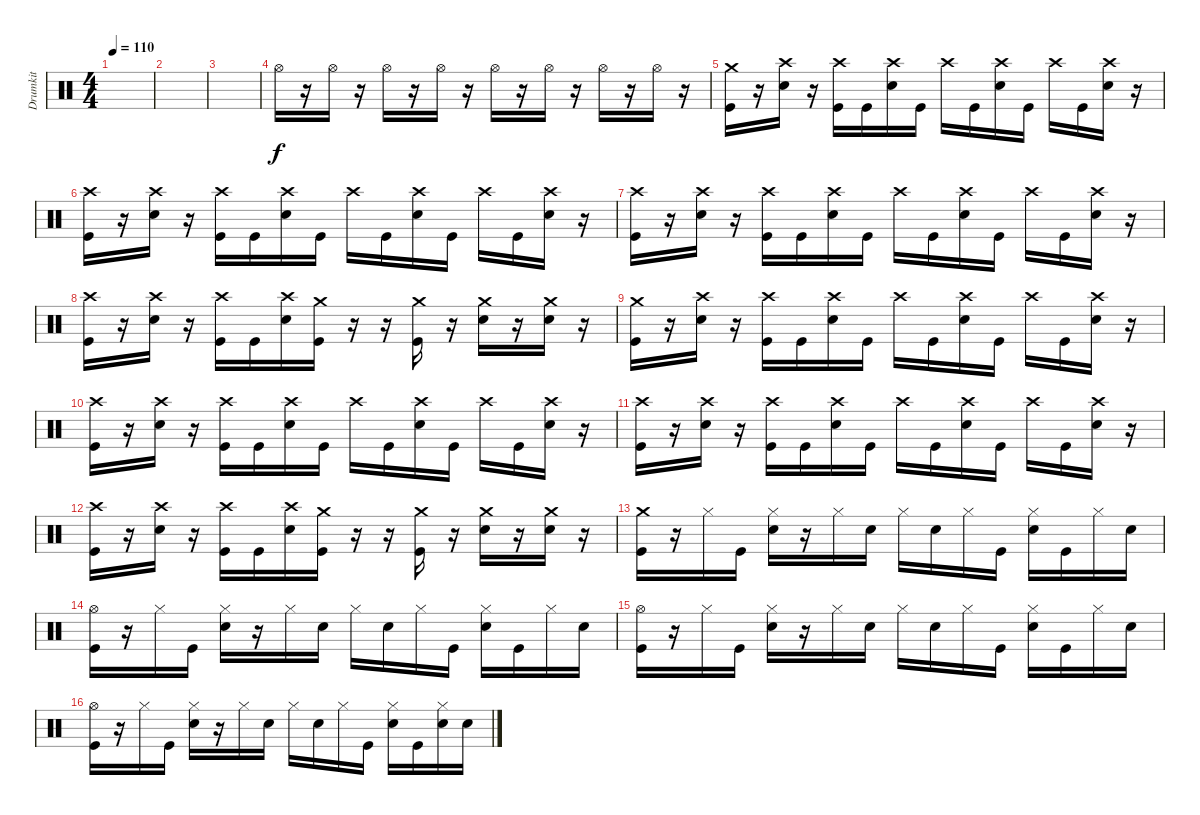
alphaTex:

\track ("Drumkit" "Drumkit") {instrument percussion}
\staff {score}
\articulation defaults
\ts (4 4)
\tempo 110
\clef neutral
\ks c
|
|
|
"Hi-Hat (open)".16 r.16 "Hi-Hat (open)".16 r.16 "Hi-Hat (open)".16 r.16 "Hi-Hat (open)".16 r.16 "Hi-Hat (open)".16 r.16 "Hi-Hat (open)".16 r.16 "Hi-Hat (open)".16 r.16 "Hi-Hat (open)".16 r.16 |
("Crash medium (hit)" "Kick (hit)").16 r.16 ("Crash high (hit)" "Snare (hit) 2").16 r.16 ("Crash high (hit)" "Kick (hit)").16 "Kick (hit)".16 ("Crash high (hit)" "Snare (hit) 2").16 "Kick (hit)".16 "Crash high (hit)".16 "Kick (hit)".16 ("Crash high (hit)" "Snare (hit) 2").16 "Kick (hit)".16 "Crash high (hit)".16 "Kick (hit)".16 ("Crash high (hit)" "Snare (hit) 2").16 r.16 |
("Kick (hit)" "Crash high (hit)").16 r.16 ("Crash high (hit)" "Snare (hit) 2").16 r.16 ("Crash high (hit)" "Kick (hit)").16 "Kick (hit)".16 ("Crash high (hit)" "Snare (hit) 2").16 "Kick (hit)".16 "Crash high (hit)".16 "Kick (hit)".16 ("Crash high (hit)" "Snare (hit) 2").16 "Kick (hit)".16 "Crash high (hit)".16 "Kick (hit)".16 ("Crash high (hit)" "Snare (hit) 2").16 r.16 |
("Kick (hit)" "Crash high (hit)").16 r.16 ("Crash high (hit)" "Snare (hit) 2").16 r.16 ("Crash high (hit)" "Kick (hit)").16 "Kick (hit)".16 ("Crash high (hit)" "Snare (hit) 2").16 "Kick (hit)".16 "Crash high (hit)".16 "Kick (hit)".16 ("Crash high (hit)" "Snare (hit) 2").16 "Kick (hit)".16 "Crash high (hit)".16 "Kick (hit)".16 ("Crash high (hit)" "Snare (hit) 2").16 r.16 |
("Kick (hit)" "Crash high (hit)").16 r.16 ("Crash high (hit)" "Snare (hit) 2").16 r.16 ("Crash high (hit)" "Kick (hit)").16 "Kick (hit)".16 ("Crash high (hit)" "Snare (hit) 2").16 ("Crash medium (hit)" "Kick (hit)").16 r.16 r.16 ("Crash medium (hit)" "Kick (hit)").16 r.16 ("Crash medium (hit)" "Snare (hit) 2").16 r.16 ("Crash medium (hit)" "Snare (hit) 2").16 r.16 |
("Crash medium (hit)" "Kick (hit)").16 r.16 ("Crash high (hit)" "Snare (hit) 2").16 r.16 ("Crash high (hit)" "Kick (hit)").16 "Kick (hit)".16 ("Crash high (hit)" "Snare (hit) 2").16 "Kick (hit)".16 "Crash high (hit)".16 "Kick (hit)".16 ("Crash high (hit)" "Snare (hit) 2").16 "Kick (hit)".16 "Crash high (hit)".16 "Kick (hit)".16 ("Crash high (hit)" "Snare (hit) 2").16 r.16 |
("Kick (hit)" "Crash high (hit)").16 r.16 ("Crash high (hit)" "Snare (hit) 2").16 r.16 ("Crash high (hit)" "Kick (hit)").16 "Kick (hit)".16 ("Crash high (hit)" "Snare (hit) 2").16 "Kick (hit)".16 "Crash high (hit)".16 "Kick (hit)".16 ("Crash high (hit)" "Snare (hit) 2").16 "Kick (hit)".16 "Crash high (hit)".16 "Kick (hit)".16 ("Crash high (hit)" "Snare (hit) 2").16 r.16 |
("Kick (hit)" "Crash high (hit)").16 r.16 ("Crash high (hit)" "Snare (hit) 2").16 r.16 ("Crash high (hit)" "Kick (hit)").16 "Kick (hit)".16 ("Crash high (hit)" "Snare (hit) 2").16 "Kick (hit)".16 "Crash high (hit)".16 "Kick (hit)".16 ("Crash high (hit)" "Snare (hit) 2").16 "Kick (hit)".16 "Crash high (hit)".16 "Kick (hit)".16 ("Crash high (hit)" "Snare (hit) 2").16 r.16 |
("Kick (hit)" "Crash high (hit)").16 r.16 ("Crash high (hit)" "Snare (hit) 2").16 r.16 ("Crash high (hit)" "Kick (hit)").16 "Kick (hit)".16 ("Crash high (hit)" "Snare (hit) 2").16 ("Crash medium (hit)" "Kick (hit)").16 r.16 r.16 ("Crash medium (hit)" "Kick (hit)").16 r.16 ("Crash medium (hit)" "Snare (hit) 2").16 r.16 ("Crash medium (hit)" "Snare (hit) 2").16 r.16 |
("Crash medium (hit)" "Kick (hit)").16 r.16 "Hi-Hat (closed)".16 "Kick (hit)".16 ("Hi-Hat (closed)" "Snare (hit) 2").16 r.16 "Hi-Hat (closed)".16 "Snare (hit) 2".16 "Hi-Hat (closed)".16 "Snare (hit) 2".16 "Hi-Hat (closed)".16 "Kick (hit)".16 ("Hi-Hat (closed)" "Snare (hit) 2").16 "Kick (hit)".16 "Hi-Hat (closed)".16 "Snare (hit) 2".16 |
("Kick (hit)" "Hi-Hat (open)").16 r.16 "Hi-Hat (closed)".16 "Kick (hit)".16 ("Hi-Hat (closed)" "Snare (hit) 2").16 r.16 "Hi-Hat (closed)".16 "Snare (hit) 2".16 "Hi-Hat (closed)".16 "Snare (hit) 2".16 "Hi-Hat (closed)".16 "Kick (hit)".16 ("Hi-Hat (closed)" "Snare (hit) 2").16 "Kick (hit)".16 "Hi-Hat (closed)".16 "Snare (hit) 2".16 |
("Kick (hit)" "Hi-Hat (open)").16 r.16 "Hi-Hat (closed)".16 "Kick (hit)".16 ("Hi-Hat (closed)" "Snare (hit) 2").16 r.16 "Hi-Hat (closed)".16 "Snare (hit) 2".16 "Hi-Hat (closed)".16 "Snare (hit) 2".16 "Hi-Hat (closed)".16 "Kick (hit)".16 ("Hi-Hat (closed)" "Snare (hit) 2").16 "Kick (hit)".16 "Hi-Hat (closed)".16 "Snare (hit) 2".16 |
("Kick (hit)" "Hi-Hat (open)").16 r.16 "Hi-Hat (closed)".16 "Kick (hit)".16 ("Hi-Hat (closed)" "Snare (hit) 2").16 r.16 "Hi-Hat (closed)".16 "Snare (hit) 2".16 "Hi-Hat (closed)".16 "Snare (hit) 2".16 "Hi-Hat (closed)".16 "Kick (hit)".16 ("Hi-Hat (closed)" "Snare (hit) 2").16 "Kick (hit)".16 ("Hi-Hat (closed)" "Snare (hit) 2").16 "Snare (hit) 2".16
